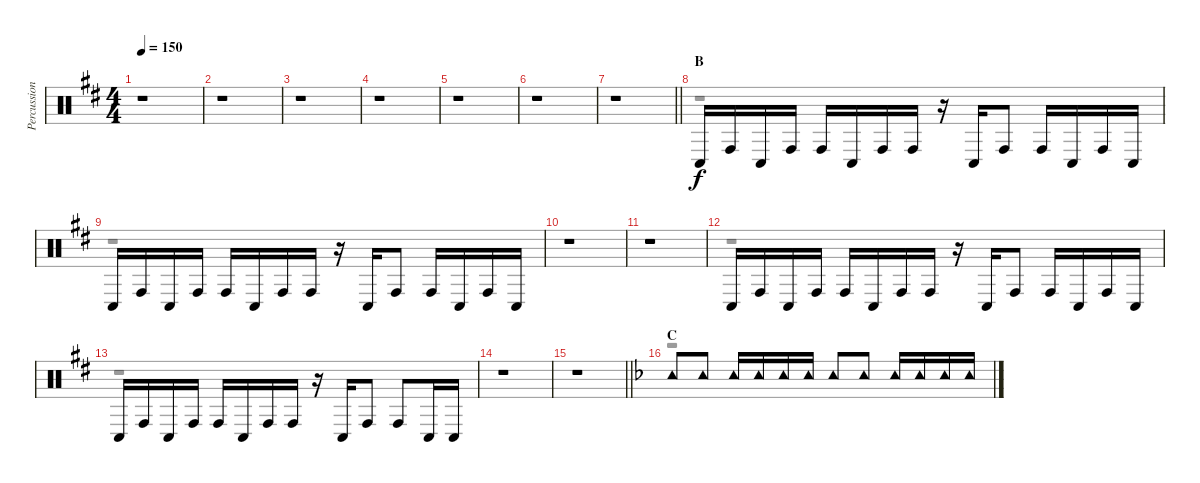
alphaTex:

\track ("Percussion" "Percussion") {instrument percussion}
\staff {score}
\articulation defaults
\voice
\ts (4 4)
\tempo 150
\clef neutral
\ks d
r.1{dy f} |
r.1 |
r.1 |
r.1 |
r.1 |
r.1 |
\barLineRight lightlight
r.1 |
\section ("" "B")
"Conga low (hit)".16 "Conga high (hit)".16 "Conga low (hit)".16 "Conga high (hit)".16 "Conga high (hit)".16 "Conga low (hit)".16 "Conga high (hit)".16 "Conga high (hit)".16 r.16 "Conga low (hit)".16 "Conga high (hit)".8 "Conga high (hit)".16 "Conga low (hit)".16 "Conga high (hit)".16 "Conga low (hit)".16 |
"Conga low (hit)".16 "Conga high (hit)".16 "Conga low (hit)".16 "Conga high (hit)".16 "Conga high (hit)".16 "Conga low (hit)".16 "Conga high (hit)".16 "Conga high (hit)".16 r.16 "Conga low (hit)".16 "Conga high (hit)".8 "Conga high (hit)".16 "Conga low (hit)".16 "Conga high (hit)".16 "Conga low (hit)".16 |
r.1 |
r.1 |
"Conga low (hit)".16 "Conga high (hit)".16 "Conga low (hit)".16 "Conga high (hit)".16 "Conga high (hit)".16 "Conga low (hit)".16 "Conga high (hit)".16 "Conga high (hit)".16 r.16 "Conga low (hit)".16 "Conga high (hit)".8 "Conga high (hit)".16 "Conga low (hit)".16 "Conga high (hit)".16 "Conga low (hit)".16 |
"Conga low (hit)".16 "Conga high (hit)".16 "Conga low (hit)".16 "Conga high (hit)".16 "Conga high (hit)".16 "Conga low (hit)".16 "Conga high (hit)".16 "Conga high (hit)".16 r.16 "Conga low (hit)".16 "Conga high (hit)".8 "Conga high (hit)".8 "Conga low (hit)".16 "Conga low (hit)".16 |
r.1 |
\barLineRight lightlight
r.1 |
\section ("" "C")
\ks f "Tambourine (hit)".8 "Tambourine (hit)".8 "Tambourine (hit)".16 "Tambourine (hit)".16 "Tambourine (hit)".16 "Tambourine (hit)".16 "Tambourine (hit)".8 "Tambourine (hit)".8 "Tambourine (hit)".16 "Tambourine (hit)".16 "Tambourine (hit)".16 "Tambourine (hit)".16
\voice
\clef neutral
\ottava regular
\simile none
\ks d
r.1{dy f} |
r.1 |
r.1 |
r.1 |
r.1 |
r.1 |
\barLineRight lightlight
r.1 |
r.1 |
r.1 |
r.1 |
r.1 |
r.1 |
r.1 |
r.1 |
\barLineRight lightlight
r.1 |
\ks f
r.1
